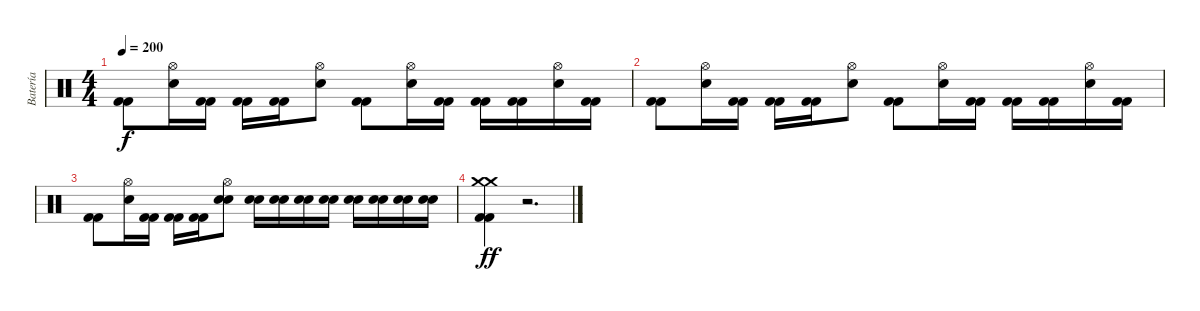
\track ("Batería" "Batería") {instrument percussion}
\staff {score}
\articulation defaults
\ts (4 4)
\tempo 200
\clef neutral
\ks c
("Kick (hit) 2" "Kick (hit) 2").8{dy f} ("Hi-Hat (open)" "Electric Snare (hit)").16 ("Kick (hit) 2" "Kick (hit) 2").16 ("Kick (hit) 2" "Kick (hit) 2").16 ("Kick (hit) 2" "Kick (hit) 2").16 ("Hi-Hat (open)" "Electric Snare (hit)").8 ("Kick (hit) 2" "Kick (hit) 2").8 ("Hi-Hat (open)" "Electric Snare (hit)").16 ("Kick (hit) 2" "Kick (hit) 2").16 ("Kick (hit) 2" "Kick (hit) 2").16 ("Kick (hit) 2" "Kick (hit) 2").16 ("Hi-Hat (open)" "Electric Snare (hit)").16 ("Kick (hit) 2" "Kick (hit) 2").16 |
("Kick (hit) 2" "Kick (hit) 2").8 ("Hi-Hat (open)" "Electric Snare (hit)").16 ("Kick (hit) 2" "Kick (hit) 2").16 ("Kick (hit) 2" "Kick (hit) 2").16 ("Kick (hit) 2" "Kick (hit) 2").16 ("Hi-Hat (open)" "Electric Snare (hit)").8 ("Kick (hit) 2" "Kick (hit) 2").8 ("Hi-Hat (open)" "Electric Snare (hit)").16 ("Kick (hit) 2" "Kick (hit) 2").16 ("Kick (hit) 2" "Kick (hit) 2").16 ("Kick (hit) 2" "Kick (hit) 2").16 ("Hi-Hat (open)" "Electric Snare (hit)").16 ("Kick (hit) 2" "Kick (hit) 2").16 |
("Kick (hit) 2" "Kick (hit) 2").8 ("Hi-Hat (open)" "Electric Snare (hit)").16 ("Kick (hit) 2" "Kick (hit) 2").16 ("Kick (hit) 2" "Kick (hit) 2").16 ("Kick (hit) 2" "Kick (hit) 2").16 ("Hi-Hat (open)" "Electric Snare (hit)" "Electric Snare (hit)").8 ("Electric Snare (hit)" "Electric Snare (hit)").16 ("Electric Snare (hit)" "Electric Snare (hit)").16 ("Electric Snare (hit)" "Electric Snare (hit)").16 ("Electric Snare (hit)" "Electric Snare (hit)").16 ("Electric Snare (hit)" "Electric Snare (hit)").16 ("Electric Snare (hit)" "Electric Snare (hit)").16 ("Electric Snare (hit)" "Electric Snare (hit)").16 ("Electric Snare (hit)" "Electric Snare (hit)").16 |
("Crash medium (hit)" "Crash medium (hit)" "Kick (hit) 2" "Kick (hit) 2").4{dy ff} r.2{d}
